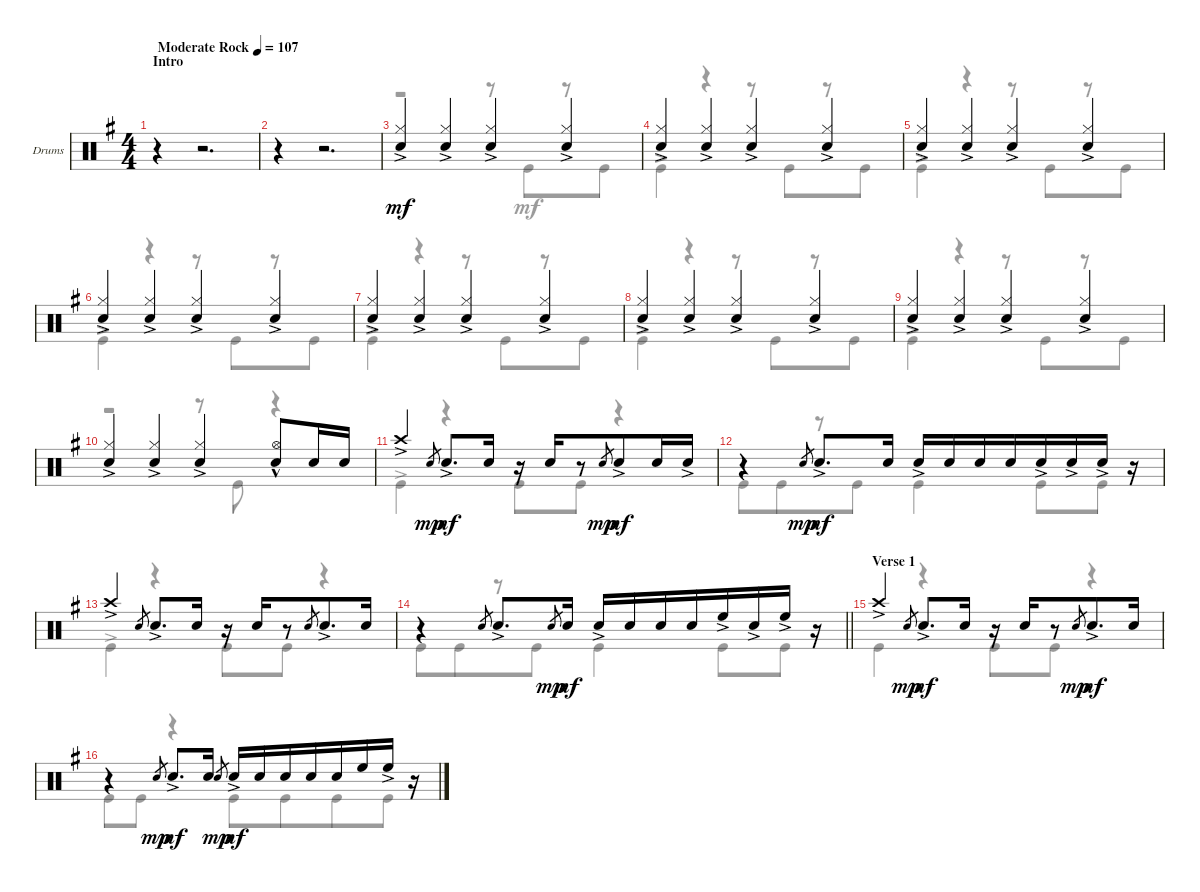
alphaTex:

\bracketExtendMode groupsimilarinstruments
\firstSystemTrackNameOrientation horizontal
\otherSystemsTrackNameOrientation horizontal
\track ("Drumkit" "Drums") {instrument percussion}
\staff {score}
\articulation defaults
\voice
\ts (4 4)
\beaming (8 4 4)
\section ("" "Intro")
\tempo (107 "Moderate Rock")
\clef neutral
\ks g
r.4{dy mf} r.2{d} |
r.4 r.2{d} |
("Hi-Hat (closed)"{ac} "Snare (hit) 2"{ac}).4 ("Hi-Hat (closed)"{ac} "Snare (hit) 2"{ac}).4 ("Hi-Hat (closed)"{ac} "Snare (hit) 2"{ac}).4 ("Hi-Hat (closed)"{ac} "Snare (hit) 2"{ac}).4 |
("Hi-Hat (closed)"{ac} "Snare (hit) 2"{ac}).4 ("Hi-Hat (closed)"{ac} "Snare (hit) 2"{ac}).4 ("Hi-Hat (closed)"{ac} "Snare (hit) 2"{ac}).4 ("Hi-Hat (closed)"{ac} "Snare (hit) 2"{ac}).4 |
("Hi-Hat (closed)"{ac} "Snare (hit) 2"{ac}).4 ("Hi-Hat (closed)"{ac} "Snare (hit) 2"{ac}).4 ("Hi-Hat (closed)"{ac} "Snare (hit) 2"{ac}).4 ("Hi-Hat (closed)"{ac} "Snare (hit) 2"{ac}).4 |
("Hi-Hat (closed)"{ac} "Snare (hit) 2"{ac}).4 ("Hi-Hat (closed)"{ac} "Snare (hit) 2"{ac}).4 ("Hi-Hat (closed)"{ac} "Snare (hit) 2"{ac}).4 ("Hi-Hat (closed)"{ac} "Snare (hit) 2"{ac}).4 |
("Hi-Hat (closed)"{ac} "Snare (hit) 2"{ac}).4 ("Hi-Hat (closed)"{ac} "Snare (hit) 2"{ac}).4 ("Hi-Hat (closed)"{ac} "Snare (hit) 2"{ac}).4 ("Hi-Hat (closed)"{ac} "Snare (hit) 2"{ac}).4 |
("Hi-Hat (closed)"{ac} "Snare (hit) 2"{ac}).4 ("Hi-Hat (closed)"{ac} "Snare (hit) 2"{ac}).4 ("Hi-Hat (closed)"{ac} "Snare (hit) 2"{ac}).4 ("Hi-Hat (closed)"{ac} "Snare (hit) 2"{ac}).4 |
("Hi-Hat (closed)"{ac} "Snare (hit) 2"{ac}).4 ("Hi-Hat (closed)"{ac} "Snare (hit) 2"{ac}).4 ("Hi-Hat (closed)"{ac} "Snare (hit) 2"{ac}).4 ("Hi-Hat (closed)"{ac} "Snare (hit) 2"{ac}).4 |
("Hi-Hat (closed)"{ac} "Snare (hit) 2"{ac}).4 ("Hi-Hat (closed)"{ac} "Snare (hit) 2"{ac}).4 ("Hi-Hat (closed)"{ac} "Snare (hit) 2"{ac}).4 ("Hi-Hat (open)"{hac} "Snare (hit) 2").8 "Snare (hit) 2".16 "Snare (hit) 2".16 |
"Crash high (hit)"{ac}.4 "Snare (hit) 2".8{gr dy mp} "Snare (hit) 2"{ac}.8{d dy mf} "Snare (hit) 2".16 r.16 "Snare (hit) 2".16 r.8 "Snare (hit) 2".8{gr dy mp} "Snare (hit) 2"{ac}.8{dy mf} "Snare (hit) 2".16 "Snare (hit) 2"{ac}.16 |
r.4 "Snare (hit) 2".8{gr dy mp} "Snare (hit) 2"{ac}.8{d dy mf} "Snare (hit) 2".16 "Snare (hit) 2"{ac}.16 "Snare (hit) 2".16 "Snare (hit) 2".16 "Snare (hit) 2".16 "Snare (hit) 2"{ac}.16 "Snare (hit) 2"{ac}.16 "Snare (hit) 2"{ac}.16 r.16 |
"Crash high (hit)"{ac}.4 "Snare (hit) 2".8{gr} "Snare (hit) 2"{ac}.8{d} "Snare (hit) 2".16 r.16 "Snare (hit) 2".16 r.8 "Snare (hit) 2".8{gr} "Snare (hit) 2"{ac}.8{d} "Snare (hit) 2".16 |
\barLineRight lightlight
r.4 "Snare (hit) 2".8{gr} "Snare (hit) 2"{ac}.8{d} "Snare (hit) 2".8{gr dy mp} "Snare (hit) 2".16{dy mf} "Snare (hit) 2"{ac}.16 "Snare (hit) 2".16 "Snare (hit) 2".16 "Snare (hit) 2".16 "High Floor Tom (hit)"{ac}.16 "Snare (hit) 2"{ac}.16 "High Floor Tom (hit)"{ac}.16 r.16 |
\section ("" "Verse 1")
"Crash high (hit)"{ac}.4 "Snare (hit) 2".8{gr dy mp} "Snare (hit) 2"{ac}.8{d dy mf} "Snare (hit) 2".16 r.16 "Snare (hit) 2".16 r.8 "Snare (hit) 2".8{gr dy mp} "Snare (hit) 2"{ac}.8{d dy mf} "Snare (hit) 2".16 |
r.4 "Snare (hit) 2".8{gr dy mp} "Snare (hit) 2"{ac}.8{d dy mf} "Snare (hit) 2".16 "Snare (hit) 2".8{gr dy mp} "Snare (hit) 2"{ac}.16{dy mf} "Snare (hit) 2".16 "Snare (hit) 2".16 "Snare (hit) 2".16 "Snare (hit) 2".16 "High Floor Tom (hit)".16 "High Floor Tom (hit)"{ac}.16 r.16
\voice
\clef neutral
\ottava regular
\simile none
\ks g
|
|
r.2 r.8 "Kick (hit)".8 r.8 "Kick (hit)".8 |
"Kick (hit)"{ac}.4 r.4 r.8 "Kick (hit)".8 r.8 "Kick (hit)".8 |
"Kick (hit)"{ac}.4 r.4 r.8 "Kick (hit)".8 r.8 "Kick (hit)".8 |
"Kick (hit)"{ac}.4 r.4 r.8 "Kick (hit)".8 r.8 "Kick (hit)".8 |
"Kick (hit)"{ac}.4 r.4 r.8 "Kick (hit)".8 r.8 "Kick (hit)".8 |
"Kick (hit)"{ac}.4 r.4 r.8 "Kick (hit)".8 r.8 "Kick (hit)".8 |
"Kick (hit)"{ac}.4 r.4 r.8 "Kick (hit)".8 r.8 "Kick (hit)".8 |
r.2 r.8 "Kick (hit)".8 r.4 |
"Kick (hit)"{ac}.4 r.4 "Kick (hit)".8 "Kick (hit)".8 r.4 |
"Kick (hit)".8 "Kick (hit)".8 r.8 "Kick (hit)".8 "Kick (hit)".4 "Kick (hit)".8 "Kick (hit)".8 |
"Kick (hit)"{ac}.4 r.4 "Kick (hit)".8 "Kick (hit)".8 r.4 |
\barLineRight lightlight "Kick (hit)".8 "Kick (hit)".8
r.8 "Kick (hit)".8 "Kick (hit)".4 "Kick (hit)".8 "Kick (hit)".8 |
"Kick (hit)".4 r.4 "Kick (hit)".8 "Kick (hit)".8 r.4 |
"Kick (hit)".8 "Kick (hit)".8 r.4 "Kick (hit)".8 "Kick (hit)".8 "Kick (hit)".8 "Kick (hit)".8
